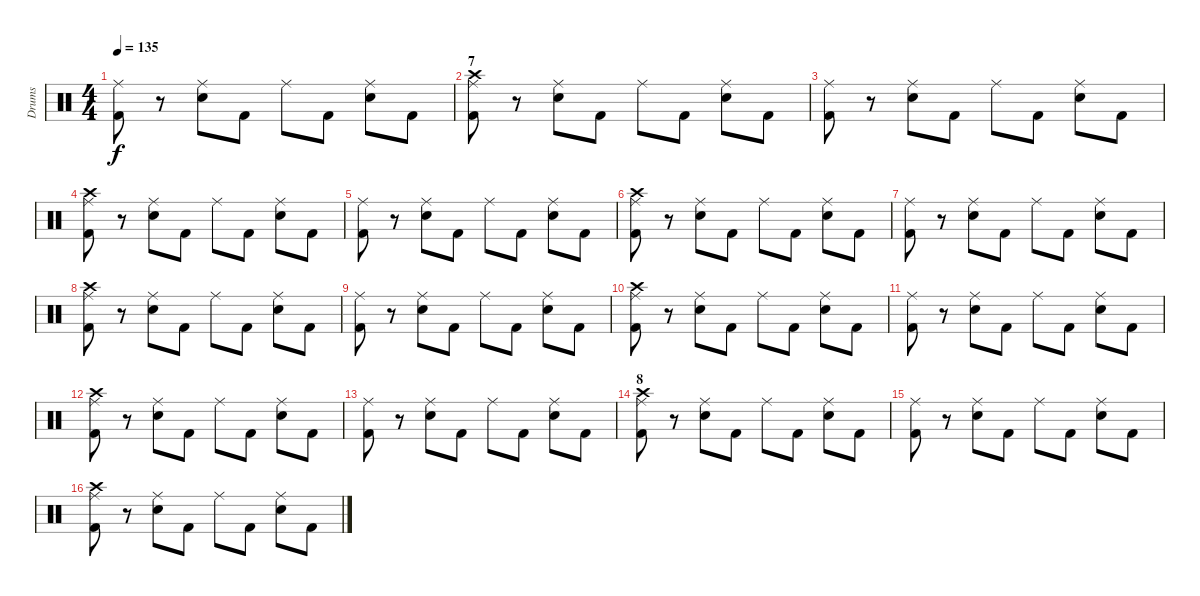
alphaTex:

\track ("Drums" "Drums") {instrument percussion}
\staff {score}
\articulation defaults
\ts (4 4)
\tempo 135
\clef neutral
\ks c
("Ride (middle)" "Kick (hit) 2").8{dy f} r.8 ("Ride (middle)" "Snare (hit) 2").8 "Kick (hit) 2".8 "Ride (middle)".8 "Kick (hit) 2".8 ("Ride (middle)" "Snare (hit) 2").8 "Kick (hit) 2".8 |
\section ("" "7")
("Ride (middle)" "Kick (hit) 2" "Crash high (hit)").8 r.8 ("Ride (middle)" "Snare (hit) 2").8 "Kick (hit) 2".8 "Ride (middle)".8 "Kick (hit) 2".8 ("Ride (middle)" "Snare (hit) 2").8 "Kick (hit) 2".8 |
("Ride (middle)" "Kick (hit) 2").8 r.8 ("Ride (middle)" "Snare (hit) 2").8 "Kick (hit) 2".8 "Ride (middle)".8 "Kick (hit) 2".8 ("Ride (middle)" "Snare (hit) 2").8 "Kick (hit) 2".8 |
("Ride (middle)" "Kick (hit) 2" "Crash high (hit)").8 r.8 ("Ride (middle)" "Snare (hit) 2").8 "Kick (hit) 2".8 "Ride (middle)".8 "Kick (hit) 2".8 ("Ride (middle)" "Snare (hit) 2").8 "Kick (hit) 2".8 |
("Ride (middle)" "Kick (hit) 2").8 r.8 ("Ride (middle)" "Snare (hit) 2").8 "Kick (hit) 2".8 "Ride (middle)".8 "Kick (hit) 2".8 ("Ride (middle)" "Snare (hit) 2").8 "Kick (hit) 2".8 |
("Ride (middle)" "Kick (hit) 2" "Crash high (hit)").8 r.8 ("Ride (middle)" "Snare (hit) 2").8 "Kick (hit) 2".8 "Ride (middle)".8 "Kick (hit) 2".8 ("Ride (middle)" "Snare (hit) 2").8 "Kick (hit) 2".8 |
("Ride (middle)" "Kick (hit) 2").8 r.8 ("Ride (middle)" "Snare (hit) 2").8 "Kick (hit) 2".8 "Ride (middle)".8 "Kick (hit) 2".8 ("Ride (middle)" "Snare (hit) 2").8 "Kick (hit) 2".8 |
("Ride (middle)" "Kick (hit) 2" "Crash high (hit)").8 r.8 ("Ride (middle)" "Snare (hit) 2").8 "Kick (hit) 2".8 "Ride (middle)".8 "Kick (hit) 2".8 ("Ride (middle)" "Snare (hit) 2").8 "Kick (hit) 2".8 |
("Ride (middle)" "Kick (hit) 2").8 r.8 ("Ride (middle)" "Snare (hit) 2").8 "Kick (hit) 2".8 "Ride (middle)".8 "Kick (hit) 2".8 ("Ride (middle)" "Snare (hit) 2").8 "Kick (hit) 2".8 |
("Ride (middle)" "Kick (hit) 2" "Crash high (hit)").8 r.8 ("Ride (middle)" "Snare (hit) 2").8 "Kick (hit) 2".8 "Ride (middle)".8 "Kick (hit) 2".8 ("Ride (middle)" "Snare (hit) 2").8 "Kick (hit) 2".8 |
("Ride (middle)" "Kick (hit) 2").8 r.8 ("Ride (middle)" "Snare (hit) 2").8 "Kick (hit) 2".8 "Ride (middle)".8 "Kick (hit) 2".8 ("Ride (middle)" "Snare (hit) 2").8 "Kick (hit) 2".8 |
("Ride (middle)" "Kick (hit) 2" "Crash high (hit)").8 r.8 ("Ride (middle)" "Snare (hit) 2").8 "Kick (hit) 2".8 "Ride (middle)".8 "Kick (hit) 2".8 ("Ride (middle)" "Snare (hit) 2").8 "Kick (hit) 2".8 |
("Ride (middle)" "Kick (hit) 2").8 r.8 ("Ride (middle)" "Snare (hit) 2").8 "Kick (hit) 2".8 "Ride (middle)".8 "Kick (hit) 2".8 ("Ride (middle)" "Snare (hit) 2").8 "Kick (hit) 2".8 |
\section ("" "8")
("Ride (middle)" "Kick (hit) 2" "Crash high (hit)").8 r.8 ("Ride (middle)" "Snare (hit) 2").8 "Kick (hit) 2".8 "Ride (middle)".8 "Kick (hit) 2".8 ("Ride (middle)" "Snare (hit) 2").8 "Kick (hit) 2".8 |
("Ride (middle)" "Kick (hit) 2").8 r.8 ("Ride (middle)" "Snare (hit) 2").8 "Kick (hit) 2".8 "Ride (middle)".8 "Kick (hit) 2".8 ("Ride (middle)" "Snare (hit) 2").8 "Kick (hit) 2".8 |
("Ride (middle)" "Kick (hit) 2" "Crash high (hit)").8 r.8 ("Ride (middle)" "Snare (hit) 2").8 "Kick (hit) 2".8 "Ride (middle)".8 "Kick (hit) 2".8 ("Ride (middle)" "Snare (hit) 2").8 "Kick (hit) 2".8
